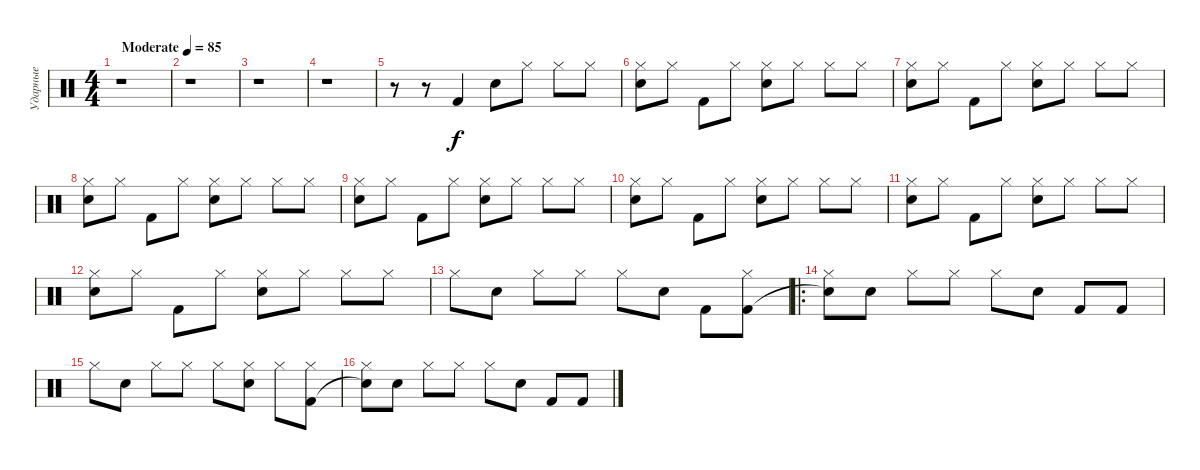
\track ("Ударные" "Ударные") {instrument percussion}
\staff {score}
\articulation defaults
\ts (4 4)
\tempo (85 "Moderate")
\clef neutral
\ks c
r.1{dy f} |
r.1 |
r.1 |
r.1 |
r.8 r.8 "Kick (hit) 2".4 "Snare (hit) 2".8 "Hi-Hat (closed)".8 "Hi-Hat (closed)".8 "Hi-Hat (closed)".8 |
("Hi-Hat (closed)" "Snare (hit) 2").8 "Hi-Hat (closed)".8 "Kick (hit) 2".8 "Hi-Hat (closed)".8 ("Hi-Hat (closed)" "Snare (hit) 2").8 "Hi-Hat (closed)".8 "Hi-Hat (closed)".8 "Hi-Hat (closed)".8 |
("Hi-Hat (closed)" "Snare (hit) 2").8 "Hi-Hat (closed)".8 "Kick (hit) 2".8 "Hi-Hat (closed)".8 ("Hi-Hat (closed)" "Snare (hit) 2").8 "Hi-Hat (closed)".8 "Hi-Hat (closed)".8 "Hi-Hat (closed)".8 |
("Hi-Hat (closed)" "Snare (hit) 2").8 "Hi-Hat (closed)".8 "Kick (hit) 2".8 "Hi-Hat (closed)".8 ("Hi-Hat (closed)" "Snare (hit) 2").8 "Hi-Hat (closed)".8 "Hi-Hat (closed)".8 "Hi-Hat (closed)".8 |
("Hi-Hat (closed)" "Snare (hit) 2").8 "Hi-Hat (closed)".8 "Kick (hit) 2".8 "Hi-Hat (closed)".8 ("Hi-Hat (closed)" "Snare (hit) 2").8 "Hi-Hat (closed)".8 "Hi-Hat (closed)".8 "Hi-Hat (closed)".8 |
("Hi-Hat (closed)" "Snare (hit) 2").8 "Hi-Hat (closed)".8 "Kick (hit) 2".8 "Hi-Hat (closed)".8 ("Hi-Hat (closed)" "Snare (hit) 2").8 "Hi-Hat (closed)".8 "Hi-Hat (closed)".8 "Hi-Hat (closed)".8 |
("Hi-Hat (closed)" "Snare (hit) 2").8 "Hi-Hat (closed)".8 "Kick (hit) 2".8 "Hi-Hat (closed)".8 ("Hi-Hat (closed)" "Snare (hit) 2").8 "Hi-Hat (closed)".8 "Hi-Hat (closed)".8 "Hi-Hat (closed)".8 |
("Hi-Hat (closed)" "Snare (hit) 2").8 "Hi-Hat (closed)".8 "Kick (hit) 2".8 "Hi-Hat (closed)".8 ("Hi-Hat (closed)" "Snare (hit) 2").8 "Hi-Hat (closed)".8 "Hi-Hat (closed)".8 "Hi-Hat (closed)".8 |
"Hi-Hat (closed)".8 "Snare (hit) 2".8 "Hi-Hat (closed)".8 "Hi-Hat (closed)".8 "Hi-Hat (closed)".8 "Snare (hit) 2".8 "Kick (hit) 2".8 ("Hi-Hat (closed)" "Kick (hit) 2").8 |
\ro
("Hi-Hat (closed)" "Snare (hit)"{t}).8 "Snare (hit) 2".8 "Hi-Hat (closed)".8 "Hi-Hat (closed)".8 "Hi-Hat (closed)".8 "Snare (hit) 2".8 "Kick (hit) 2".8 "Kick (hit) 2".8 |
"Hi-Hat (closed)".8 "Snare (hit) 2".8 "Hi-Hat (closed)".8 "Hi-Hat (closed)".8 "Hi-Hat (closed)".8 ("Hi-Hat (closed)" "Snare (hit) 2").8 "Hi-Hat (closed)".8 ("Hi-Hat (closed)" "Kick (hit) 2").8 |
("Hi-Hat (closed)" "Snare (hit)"{t}).8 "Snare (hit) 2".8 "Hi-Hat (closed)".8 "Hi-Hat (closed)".8 "Hi-Hat (closed)".8 "Snare (hit) 2".8 "Kick (hit) 2".8 "Kick (hit) 2".8
